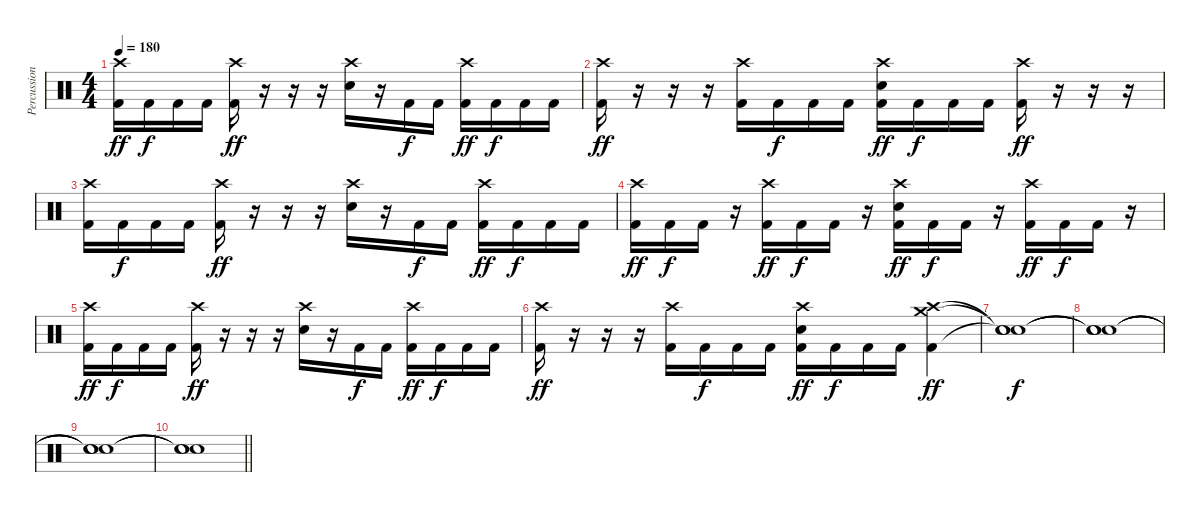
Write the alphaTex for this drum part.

\track ("Percussions" "Percussion") {instrument percussion}
\staff {score}
\articulation defaults
\ts (4 4)
\tempo 180
\clef neutral
\ks c
("Crash high (hit)" "Kick (hit) 2").16{dy ff} "Kick (hit) 2".16{dy f} "Kick (hit) 2".16 "Kick (hit) 2".16 ("Crash high (hit)" "Kick (hit) 2").16{dy ff} r.16 r.16 r.16 ("Crash high (hit)" "Electric Snare (hit)").16 r.16 "Kick (hit) 2".16{dy f} "Kick (hit) 2".16 ("Crash high (hit)" "Kick (hit) 2").16{dy ff} "Kick (hit) 2".16{dy f} "Kick (hit) 2".16 "Kick (hit) 2".16 |
("Crash high (hit)" "Kick (hit) 2").16{dy ff} r.16 r.16 r.16 ("Crash high (hit)" "Kick (hit) 2").16 "Kick (hit) 2".16{dy f} "Kick (hit) 2".16 "Kick (hit) 2".16 ("Crash high (hit)" "Electric Snare (hit)" "Kick (hit) 2").16{dy ff} "Kick (hit) 2".16{dy f} "Kick (hit) 2".16 "Kick (hit) 2".16 ("Crash high (hit)" "Kick (hit) 2").16{dy ff} r.16 r.16 r.16 |
("Crash high (hit)" "Kick (hit) 2").16 "Kick (hit) 2".16{dy f} "Kick (hit) 2".16 "Kick (hit) 2".16 ("Crash high (hit)" "Kick (hit) 2").16{dy ff} r.16 r.16 r.16 ("Crash high (hit)" "Electric Snare (hit)").16 r.16 "Kick (hit) 2".16{dy f} "Kick (hit) 2".16 ("Crash high (hit)" "Kick (hit) 2").16{dy ff} "Kick (hit) 2".16{dy f} "Kick (hit) 2".16 "Kick (hit) 2".16 |
("Crash high (hit)" "Kick (hit) 2").16{dy ff} "Kick (hit) 2".16{dy f} "Kick (hit) 2".16 r.16 ("Crash high (hit)" "Kick (hit) 2").16{dy ff} "Kick (hit) 2".16{dy f} "Kick (hit) 2".16 r.16 ("Crash high (hit)" "Electric Snare (hit)" "Kick (hit) 2").16{dy ff} "Kick (hit) 2".16{dy f} "Kick (hit) 2".16 r.16 ("Crash high (hit)" "Kick (hit) 2").16{dy ff} "Kick (hit) 2".16{dy f} "Kick (hit) 2".16 r.16 |
("Crash high (hit)" "Kick (hit) 2").16{dy ff} "Kick (hit) 2".16{dy f} "Kick (hit) 2".16 "Kick (hit) 2".16 ("Crash high (hit)" "Kick (hit) 2").16{dy ff} r.16 r.16 r.16 ("Crash high (hit)" "Electric Snare (hit)").16 r.16 "Kick (hit) 2".16{dy f} "Kick (hit) 2".16 ("Crash high (hit)" "Kick (hit) 2").16{dy ff} "Kick (hit) 2".16{dy f} "Kick (hit) 2".16 "Kick (hit) 2".16 |
("Crash high (hit)" "Kick (hit) 2").16{dy ff} r.16 r.16 r.16 ("Crash high (hit)" "Kick (hit) 2").16 "Kick (hit) 2".16{dy f} "Kick (hit) 2".16 "Kick (hit) 2".16 ("Crash high (hit)" "Electric Snare (hit)" "Kick (hit) 2").16{dy ff} "Kick (hit) 2".16{dy f} "Kick (hit) 2".16 "Kick (hit) 2".16 ("Crash high (hit)" "Crash medium (hit)" "Kick (hit) 2").4{dy ff} |
("Snare (hit)"{t} "Snare (hit)"{t} "Snare (hit)"{t}).1{dy f} |
("Snare (hit)"{t} "Snare (hit)"{t} "Snare (hit)"{t}).1 |
("Snare (hit)"{t} "Snare (hit)"{t} "Snare (hit)"{t}).1 |
\barLineRight lightlight
("Snare (hit)"{t} "Snare (hit)"{t} "Snare (hit)"{t}).1
